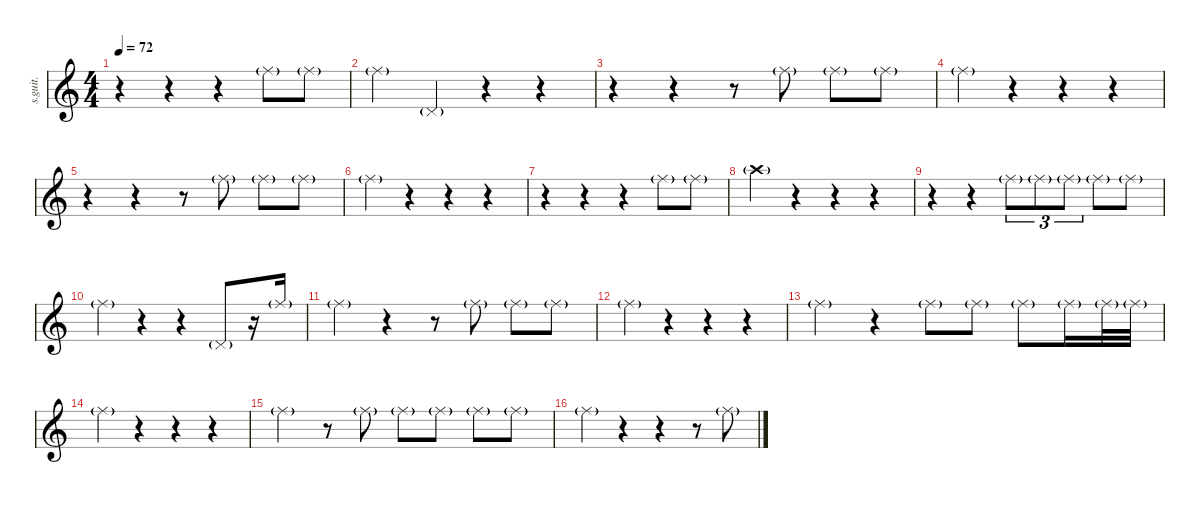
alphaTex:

\defaultSystemsLayout 4
\hideDynamics
\bracketExtendMode nobrackets
\track ("Ian Thomas" "s.guit.") {instrument percussion}
\staff {score}
\articulation defaults
\ts (4 4)
\tempo 72
\clef g2
\ks c
r.4{dy f} r.4 r.4 "Ride (middle)"{g}.8{lyrics (0 "") lyrics (1 "") lyrics (2 "") lyrics (3 "") lyrics (4 "")} "Ride (middle)"{g}.8{lyrics (0 "") lyrics (1 "") lyrics (2 "") lyrics (3 "") lyrics (4 "")} |
"Ride (middle)"{g}.4{lyrics (0 "") lyrics (1 "") lyrics (2 "") lyrics (3 "") lyrics (4 "")} "Pedal Hi-Hat (hit)"{g}.4{lyrics (0 "") lyrics (1 "") lyrics (2 "") lyrics (3 "") lyrics (4 "")} r.4 r.4 |
r.4 r.4 r.8 "Ride (middle)"{g}.8{lyrics (0 "") lyrics (1 "") lyrics (2 "") lyrics (3 "") lyrics (4 "")} "Ride (middle)"{g}.8{lyrics (0 "") lyrics (1 "") lyrics (2 "") lyrics (3 "") lyrics (4 "")} "Ride (middle)"{g}.8{lyrics (0 "") lyrics (1 "") lyrics (2 "") lyrics (3 "") lyrics (4 "")} |
"Ride (middle)"{g}.4{lyrics (0 "") lyrics (1 "") lyrics (2 "") lyrics (3 "") lyrics (4 "")} r.4 r.4 r.4 |
r.4 r.4 r.8 "Ride (middle)"{g}.8{lyrics (0 "") lyrics (1 "") lyrics (2 "") lyrics (3 "") lyrics (4 "")} "Ride (middle)"{g}.8{lyrics (0 "") lyrics (1 "") lyrics (2 "") lyrics (3 "") lyrics (4 "")} "Ride (middle)"{g}.8{lyrics (0 "") lyrics (1 "") lyrics (2 "") lyrics (3 "") lyrics (4 "")} |
"Ride (middle)"{g}.4{lyrics (0 "") lyrics (1 "") lyrics (2 "") lyrics (3 "") lyrics (4 "")} r.4 r.4 r.4 |
r.4 r.4 r.4 "Ride (middle)"{g}.8{lyrics (0 "") lyrics (1 "") lyrics (2 "") lyrics (3 "") lyrics (4 "")} "Ride (middle)"{g}.8{lyrics (0 "") lyrics (1 "") lyrics (2 "") lyrics (3 "") lyrics (4 "")} |
"Crash high (hit)"{g}.4{lyrics (0 "") lyrics (1 "") lyrics (2 "") lyrics (3 "") lyrics (4 "")} r.4 r.4 r.4 |
r.4 r.4 "Ride (middle)"{g}.8{tu (3 2) lyrics (0 "") lyrics (1 "") lyrics (2 "") lyrics (3 "") lyrics (4 "")} "Ride (middle)"{g}.8{tu (3 2) lyrics (0 "") lyrics (1 "") lyrics (2 "") lyrics (3 "") lyrics (4 "")} "Ride (middle)"{g}.8{tu (3 2) lyrics (0 "") lyrics (1 "") lyrics (2 "") lyrics (3 "") lyrics (4 "")} "Ride (middle)"{g}.8{lyrics (0 "") lyrics (1 "") lyrics (2 "") lyrics (3 "") lyrics (4 "")} "Ride (middle)"{g}.8{lyrics (0 "") lyrics (1 "") lyrics (2 "") lyrics (3 "") lyrics (4 "")} |
"Ride (middle)"{g}.4{lyrics (0 "") lyrics (1 "") lyrics (2 "") lyrics (3 "") lyrics (4 "")} r.4 r.4 "Pedal Hi-Hat (hit)"{g}.8{lyrics (0 "") lyrics (1 "") lyrics (2 "") lyrics (3 "") lyrics (4 "")} r.16 "Ride (middle)"{g}.16{lyrics (0 "") lyrics (1 "") lyrics (2 "") lyrics (3 "") lyrics (4 "")} |
"Ride (middle)"{g}.4{lyrics (0 "") lyrics (1 "") lyrics (2 "") lyrics (3 "") lyrics (4 "")} r.4 r.8 "Ride (middle)"{g}.8{lyrics (0 "") lyrics (1 "") lyrics (2 "") lyrics (3 "") lyrics (4 "")} "Ride (middle)"{g}.8{lyrics (0 "") lyrics (1 "") lyrics (2 "") lyrics (3 "") lyrics (4 "")} "Ride (middle)"{g}.8{lyrics (0 "") lyrics (1 "") lyrics (2 "") lyrics (3 "") lyrics (4 "")} |
"Ride (middle)"{g}.4{lyrics (0 "") lyrics (1 "") lyrics (2 "") lyrics (3 "") lyrics (4 "")} r.4 r.4 r.4 |
"Ride (middle)"{g}.4{lyrics (0 "") lyrics (1 "") lyrics (2 "") lyrics (3 "") lyrics (4 "")} r.4 "Ride (middle)"{g}.8{lyrics (0 "") lyrics (1 "") lyrics (2 "") lyrics (3 "") lyrics (4 "")} "Ride (middle)"{g}.8{lyrics (0 "") lyrics (1 "") lyrics (2 "") lyrics (3 "") lyrics (4 "")} "Ride (middle)"{g}.8{lyrics (0 "") lyrics (1 "") lyrics (2 "") lyrics (3 "") lyrics (4 "")} "Ride (middle)"{g}.16{lyrics (0 "") lyrics (1 "") lyrics (2 "") lyrics (3 "") lyrics (4 "")} "Ride (middle)"{g}.32{lyrics (0 "") lyrics (1 "") lyrics (2 "") lyrics (3 "") lyrics (4 "")} "Ride (middle)"{g}.32{lyrics (0 "") lyrics (1 "") lyrics (2 "") lyrics (3 "") lyrics (4 "")} |
"Ride (middle)"{g}.4{lyrics (0 "") lyrics (1 "") lyrics (2 "") lyrics (3 "") lyrics (4 "")} r.4 r.4 r.4 |
"Ride (middle)"{g}.4{lyrics (0 "") lyrics (1 "") lyrics (2 "") lyrics (3 "") lyrics (4 "")} r.8 "Ride (middle)"{g}.8{lyrics (0 "") lyrics (1 "") lyrics (2 "") lyrics (3 "") lyrics (4 "")} "Ride (middle)"{g}.8{lyrics (0 "") lyrics (1 "") lyrics (2 "") lyrics (3 "") lyrics (4 "")} "Ride (middle)"{g}.8{lyrics (0 "") lyrics (1 "") lyrics (2 "") lyrics (3 "") lyrics (4 "")} "Ride (middle)"{g}.8{lyrics (0 "") lyrics (1 "") lyrics (2 "") lyrics (3 "") lyrics (4 "")} "Ride (middle)"{g}.8{lyrics (0 "") lyrics (1 "") lyrics (2 "") lyrics (3 "") lyrics (4 "")} |
"Ride (middle)"{g}.4{lyrics (0 "") lyrics (1 "") lyrics (2 "") lyrics (3 "") lyrics (4 "")} r.4 r.4 r.8 "Ride (middle)"{g}.8{lyrics (0 "") lyrics (1 "") lyrics (2 "") lyrics (3 "") lyrics (4 "")}
